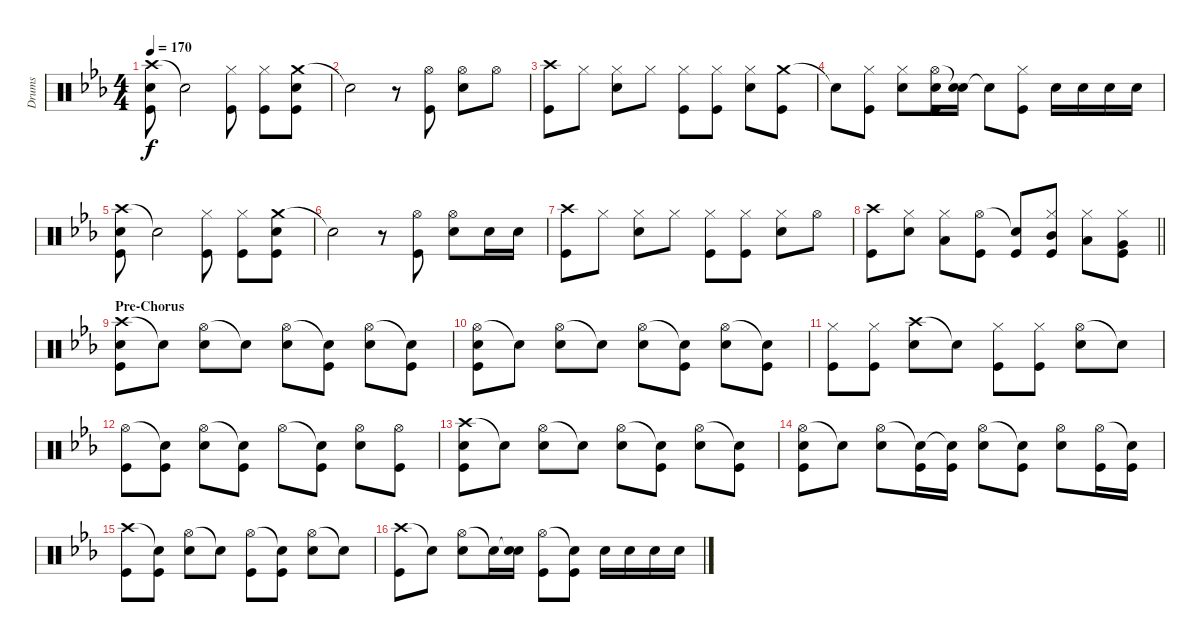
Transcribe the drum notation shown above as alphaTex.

\track ("Drums" "Drums") {solo instrument percussion}
\staff {score}
\articulation defaults
\ts (4 4)
\tempo 170
\clef neutral
\ks eb
("Crash high (hit)" "Snare (hit) 2" "Kick (hit)").8{dy f} "Snare (hit)"{t}.2 ("Hi-Hat (closed)" "Kick (hit)").8 ("Hi-Hat (closed)" "Kick (hit)").8 ("Crash medium (hit)" "Snare (hit) 2" "Kick (hit)").8 |
"Snare (hit)"{t}.2 r.8 ("Hi-Hat (open)" "Kick (hit)").8 ("Hi-Hat (open)" "Snare (hit) 2").8 "Hi-Hat (open)".8 |
("Crash high (hit)" "Kick (hit)").8 "Hi-Hat (closed)".8 ("Hi-Hat (closed)" "Snare (hit) 2").8 "Hi-Hat (closed)".8 ("Hi-Hat (closed)" "Kick (hit)").8 ("Hi-Hat (closed)" "Kick (hit)").8 ("Hi-Hat (closed)" "Snare (hit) 2").8 ("Crash medium (hit)" "Kick (hit)").8 |
"Snare (hit)"{t}.8 ("Hi-Hat (closed)" "Kick (hit)").8 ("Hi-Hat (closed)" "Snare (hit) 2").8 ("Hi-Hat (open)" "Snare (hit) 2" "Kick (hit)").16 ("Snare (hit)"{t} "Snare (hit) 2").16 "Snare (hit)"{t}.8 ("Hi-Hat (closed)" "Kick (hit)").8 "Snare (hit) 2".16 "Snare (hit) 2".16 "Snare (hit) 2".16 "Snare (hit) 2".16 |
("Crash high (hit)" "Snare (hit) 2" "Kick (hit)").8 "Snare (hit)"{t}.2 ("Hi-Hat (closed)" "Kick (hit)").8 ("Hi-Hat (closed)" "Kick (hit)").8 ("Crash medium (hit)" "Snare (hit) 2" "Kick (hit)").8 |
"Snare (hit)"{t}.2 r.8 ("Hi-Hat (open)" "Kick (hit)").8 ("Hi-Hat (open)" "Snare (hit) 2").8 "Snare (hit) 2".16 "Snare (hit) 2".16 |
("Crash high (hit)" "Kick (hit)").8 "Hi-Hat (closed)".8 ("Hi-Hat (closed)" "Snare (hit) 2").8 "Hi-Hat (closed)".8 ("Hi-Hat (closed)" "Kick (hit)").8 ("Hi-Hat (closed)" "Kick (hit)").8 ("Hi-Hat (closed)" "Snare (hit) 2").8 "Hi-Hat (open)".8 |
\barLineRight lightlight
("Crash high (hit)" "Kick (hit)").8 ("Hi-Hat (closed)" "Snare (hit) 2").8 ("Hi-Hat (closed)" "Low Tom (hit)").8 ("Hi-Hat (open)" "Kick (hit)").8 ("Snare (hit)"{t} "Kick (hit)").8 ("Hi-Hat (closed)" "Mid Tom (hit)" "Kick (hit)").8 ("Hi-Hat (closed)" "Low Tom (hit)").8 ("Hi-Hat (closed)" "Very Low Tom (hit)" "Kick (hit)").8 |
\section ("" "Pre-Chorus")
("Crash high (hit)" "Snare (hit) 2" "Kick (hit)").8 "Snare (hit)"{t}.8 ("Hi-Hat (open)" "Snare (hit) 2").8 "Snare (hit)"{t}.8 ("Hi-Hat (open)" "Snare (hit) 2").8 ("Snare (hit)"{t} "Kick (hit)").8 ("Hi-Hat (open)" "Snare (hit) 2").8 ("Snare (hit)"{t} "Kick (hit)").8 |
("Hi-Hat (open)" "Snare (hit) 2" "Kick (hit)").8 "Snare (hit)"{t}.8 ("Hi-Hat (open)" "Snare (hit) 2").8 "Snare (hit)"{t}.8 ("Hi-Hat (open)" "Snare (hit) 2").8 ("Snare (hit)"{t} "Kick (hit)").8 ("Hi-Hat (open)" "Snare (hit) 2").8 ("Snare (hit)"{t} "Kick (hit)").8 |
("Hi-Hat (closed)" "Kick (hit)").8 ("Hi-Hat (closed)" "Kick (hit)").8 ("Crash high (hit)" "Snare (hit) 2").8 "Snare (hit)"{t}.8 ("Hi-Hat (closed)" "Kick (hit)").8 ("Hi-Hat (closed)" "Kick (hit)").8 ("Hi-Hat (open)" "Snare (hit) 2").8 "Snare (hit)"{t}.8 |
("Hi-Hat (open)" "Kick (hit)").8 ("Snare (hit)"{t} "Kick (hit)").8 ("Hi-Hat (open)" "Snare (hit) 2").8 ("Snare (hit)"{t} "Kick (hit)").8 "Hi-Hat (open)".8 ("Snare (hit)"{t} "Kick (hit)").8 ("Hi-Hat (open)" "Snare (hit) 2").8 ("Hi-Hat (open)" "Kick (hit)").8 |
("Crash high (hit)" "Snare (hit) 2" "Kick (hit)").8 "Snare (hit)"{t}.8 ("Hi-Hat (open)" "Snare (hit) 2").8 "Snare (hit)"{t}.8 ("Hi-Hat (open)" "Snare (hit) 2").8 ("Snare (hit)"{t} "Kick (hit)").8 ("Hi-Hat (open)" "Snare (hit) 2").8 ("Snare (hit)"{t} "Kick (hit)").8 |
("Hi-Hat (open)" "Snare (hit) 2" "Kick (hit)").8 "Snare (hit)"{t}.8 ("Hi-Hat (open)" "Snare (hit) 2").8 ("Snare (hit)"{t} "Kick (hit)").16 ("Snare (hit)"{t} "Kick (hit)").16 ("Hi-Hat (open)" "Snare (hit) 2").8 ("Snare (hit)"{t} "Kick (hit)").8 ("Hi-Hat (open)" "Snare (hit) 2").8 ("Hi-Hat (open)" "Kick (hit)").16 ("Snare (hit)"{t} "Kick (hit)").16 |
("Crash high (hit)" "Kick (hit)").8 ("Snare (hit)"{t} "Kick (hit)").8 ("Hi-Hat (open)" "Snare (hit) 2").8 "Snare (hit)"{t}.8 ("Hi-Hat (open)" "Kick (hit)").8 ("Snare (hit)"{t} "Kick (hit)").8 ("Hi-Hat (open)" "Snare (hit) 2").8 "Snare (hit)"{t}.8 |
("Crash high (hit)" "Kick (hit)").8 "Snare (hit)"{t}.8 ("Hi-Hat (open)" "Snare (hit) 2").8 "Snare (hit)"{t}.16 ("Snare (hit)"{t} "Snare (hit) 2").16 ("Hi-Hat (open)" "Kick (hit)").8 ("Snare (hit)"{t} "Kick (hit)").8 "Snare (hit) 2".16 "Snare (hit) 2".16 "Snare (hit) 2".16 "Snare (hit) 2".16
